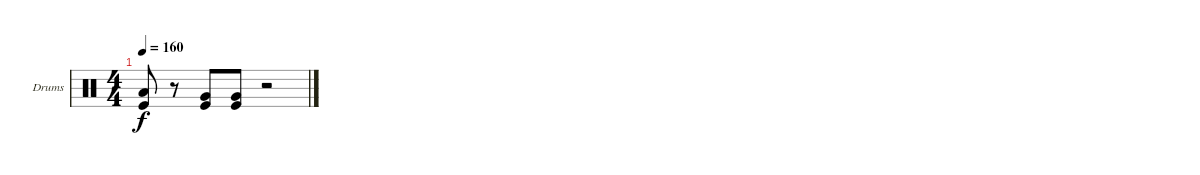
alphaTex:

\defaultSystemsLayout 4
\bracketExtendMode groupsimilarinstruments
\firstSystemTrackNameOrientation horizontal
\otherSystemsTrackNameOrientation horizontal
\track ("Drumkit" "Drums") {instrument percussion}
\staff {score}
\articulation defaults
\ts (4 4)
\tempo 160
\clef neutral
\ks c
("Kick (hit)" "Low Tom (hit)").8{dy f} r.8 ("Kick (hit)" "Very Low Tom (hit)").8 ("Kick (hit)" "Very Low Tom (hit)").8 r.2
